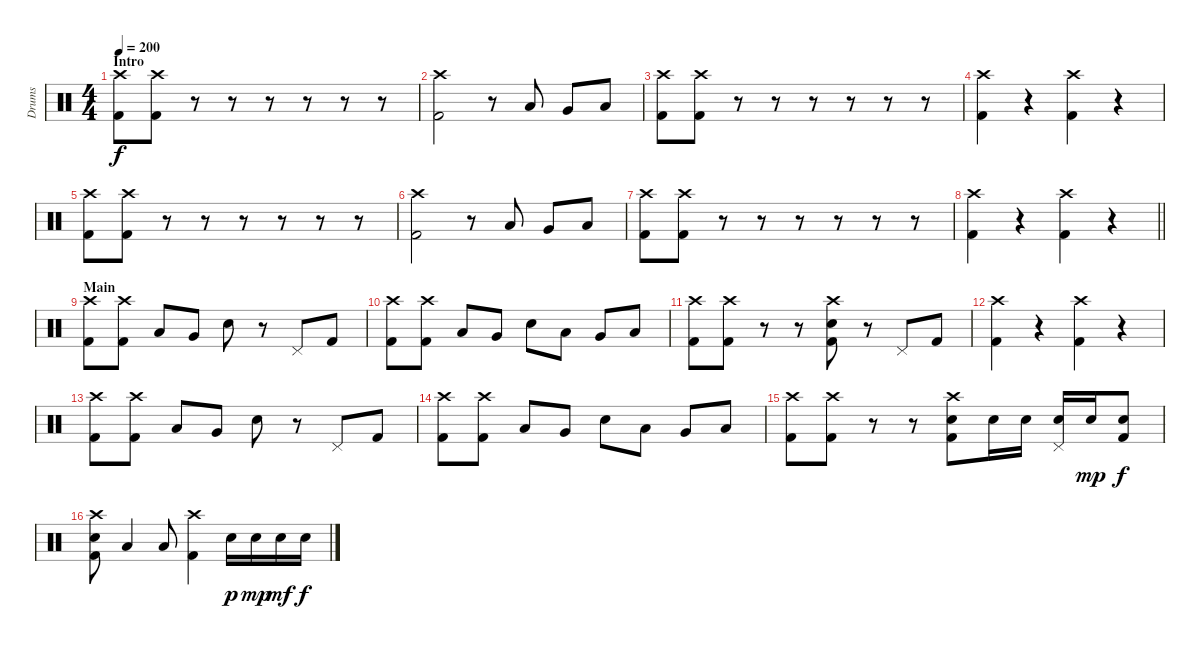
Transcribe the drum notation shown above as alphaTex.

\track ("Drums" "Drums") {instrument percussion}
\staff {score}
\articulation defaults
\ts (4 4)
\section ("" "Intro")
\tempo 200
\clef neutral
\ks c
("Crash high (hit)" "Kick (hit) 2").8{dy f} ("Crash high (hit)" "Kick (hit) 2").8 r.8 r.8 r.8 r.8 r.8 r.8 |
("Crash high (hit)" "Kick (hit) 2").2 r.8 "Low Tom (hit)".8 "Very Low Tom (hit)".8 "Low Floor Tom (hit)".8 |
("Crash high (hit)" "Kick (hit) 2").8 ("Crash high (hit)" "Kick (hit) 2").8 r.8 r.8 r.8 r.8 r.8 r.8 |
("Crash high (hit)" "Kick (hit) 2").4 r.4 ("Crash high (hit)" "Kick (hit) 2").4 r.4 |
("Crash high (hit)" "Kick (hit) 2").8 ("Crash high (hit)" "Kick (hit) 2").8 r.8 r.8 r.8 r.8 r.8 r.8 |
("Crash high (hit)" "Kick (hit) 2").2 r.8 "Low Tom (hit)".8 "Very Low Tom (hit)".8 "Low Floor Tom (hit)".8 |
("Crash high (hit)" "Kick (hit) 2").8 ("Crash high (hit)" "Kick (hit) 2").8 r.8 r.8 r.8 r.8 r.8 r.8 |
\barLineRight lightlight
("Crash high (hit)" "Kick (hit) 2").4 r.4 ("Crash high (hit)" "Kick (hit) 2").4 r.4 |
\section ("" "Main")
("Crash high (hit)" "Kick (hit) 2").8 ("Crash high (hit)" "Kick (hit) 2").8 "Low Tom (hit)".8 "Very Low Tom (hit)".8 "Electric Snare (hit)".8 r.8 "Pedal Hi-Hat (hit)".8 "Kick (hit) 2".8 |
("Crash high (hit)" "Kick (hit) 2").8 ("Crash high (hit)" "Kick (hit) 2").8 "Low Tom (hit)".8 "Very Low Tom (hit)".8 "Electric Snare (hit)".8 "Low Tom (hit)".8 "Very Low Tom (hit)".8 "Low Floor Tom (hit)".8 |
("Crash high (hit)" "Kick (hit) 2").8 ("Crash high (hit)" "Kick (hit) 2").8 r.8 r.8 ("Crash high (hit)" "Electric Snare (hit)" "Kick (hit) 2").8 r.8 "Pedal Hi-Hat (hit)".8 "Kick (hit) 2".8 |
("Crash high (hit)" "Kick (hit) 2").4 r.4 ("Crash high (hit)" "Kick (hit) 2").4 r.4 |
("Crash high (hit)" "Kick (hit) 2").8 ("Crash high (hit)" "Kick (hit) 2").8 "Low Tom (hit)".8 "Very Low Tom (hit)".8 "Electric Snare (hit)".8 r.8 "Pedal Hi-Hat (hit)".8 "Kick (hit) 2".8 |
("Crash high (hit)" "Kick (hit) 2").8 ("Crash high (hit)" "Kick (hit) 2").8 "Low Tom (hit)".8 "Very Low Tom (hit)".8 "Electric Snare (hit)".8 "Low Tom (hit)".8 "Very Low Tom (hit)".8 "Low Floor Tom (hit)".8 |
("Crash high (hit)" "Kick (hit) 2").8 ("Crash high (hit)" "Kick (hit) 2").8 r.8 r.8 ("Crash high (hit)" "Electric Snare (hit)" "Kick (hit) 2").8 "Electric Snare (hit)".16 "Electric Snare (hit)".16 ("Pedal Hi-Hat (hit)" "Electric Snare (hit)").16 "Electric Snare (hit)".16{dy mp} ("Electric Snare (hit)" "Kick (hit) 2").8{dy f} |
("Crash high (hit)" "Electric Snare (hit)" "Kick (hit) 2").8 "Low Tom (hit)".4 "Low Floor Tom (hit)".8 ("Crash high (hit)" "Kick (hit) 2").4 "Electric Snare (hit)".16{dy p} "Electric Snare (hit)".16{dy mp} "Electric Snare (hit)".16{dy mf} "Electric Snare (hit)".16{dy f}
